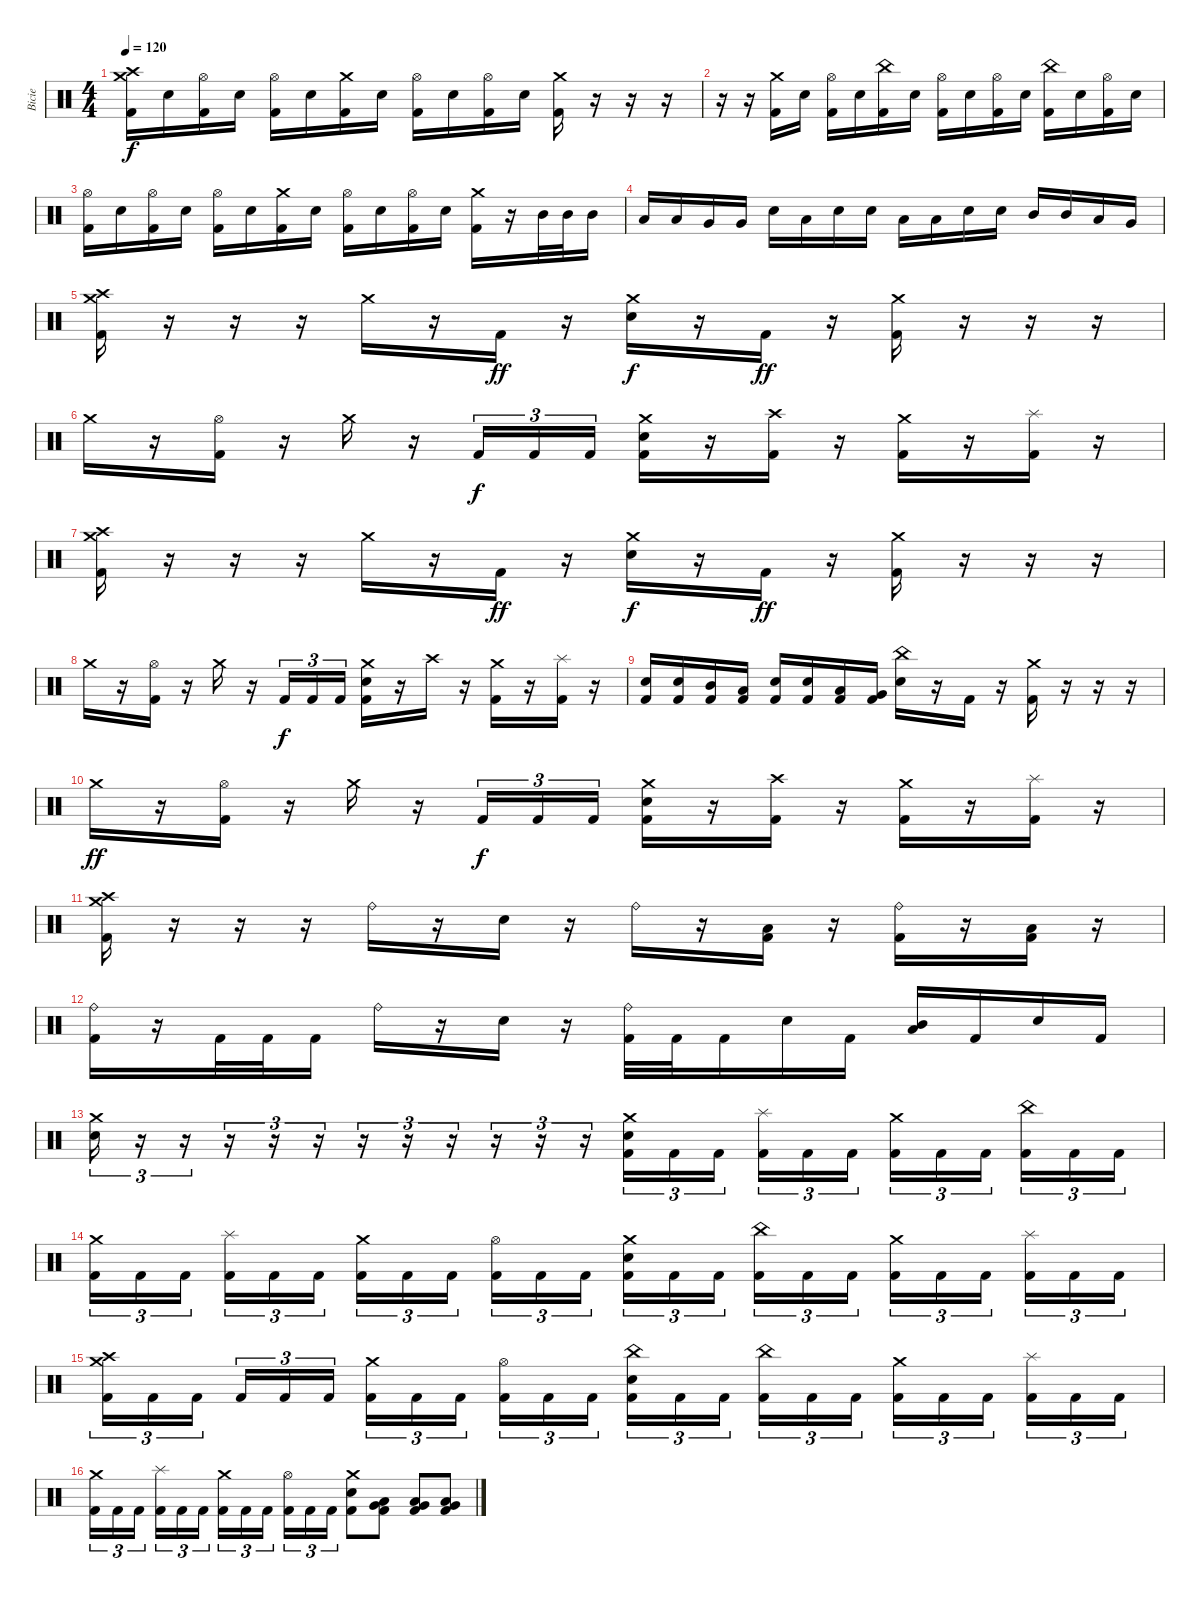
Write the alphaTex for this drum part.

\track ("Bicie" "Bicie") {instrument percussion}
\staff {score}
\articulation defaults
\ts (4 4)
\tempo 120
\clef neutral
\ks c
("Crash high (hit)" "Crash medium (hit)" "Kick (hit) 2").16{dy f} "Snare (hit) 2".16 ("Hi-Hat (open)" "Kick (hit) 2").16 "Snare (hit) 2".16 ("Hi-Hat (open)" "Kick (hit) 2").16 "Snare (hit) 2".16 ("Crash medium (hit)" "Kick (hit) 2").16 "Snare (hit) 2".16 ("Hi-Hat (open)" "Kick (hit) 2").16 "Snare (hit) 2".16 ("Hi-Hat (open)" "Kick (hit) 2").16 "Snare (hit) 2".16 ("Crash medium (hit)" "Kick (hit) 2").16 r.16 r.16 r.16 |
r.16 r.16 ("Crash medium (hit)" "Kick (hit) 2").16 "Snare (hit) 2".16 ("Hi-Hat (open)" "Kick (hit) 2").16 "Snare (hit) 2".16 ("China (hit)" "Kick (hit) 2").16 "Snare (hit) 2".16 ("Hi-Hat (open)" "Kick (hit) 2").16 "Snare (hit) 2".16 ("Hi-Hat (open)" "Kick (hit) 2").16 "Snare (hit) 2".16 ("China (hit)" "Kick (hit) 2").16 "Snare (hit) 2".16 ("Hi-Hat (open)" "Kick (hit) 2").16 "Snare (hit) 2".16 |
("Hi-Hat (open)" "Kick (hit) 2").16 "Snare (hit) 2".16 ("Hi-Hat (open)" "Kick (hit) 2").16 "Snare (hit) 2".16 ("Hi-Hat (open)" "Kick (hit) 2").16 "Snare (hit) 2".16 ("Crash medium (hit)" "Kick (hit) 2").16 "Snare (hit) 2".16 ("Hi-Hat (open)" "Kick (hit) 2").16 "Snare (hit) 2".16 ("Hi-Hat (open)" "Kick (hit) 2").16 "Snare (hit) 2".16 ("Crash medium (hit)" "Kick (hit) 2").16 r.16 "Mid Tom (hit)".32 "Mid Tom (hit)".32 "Mid Tom (hit)".16 |
"Low Tom (hit)".16 "Low Tom (hit)".16 "Very Low Tom (hit)".16 "Very Low Tom (hit)".16 "Snare (hit) 2".16 "Low Tom (hit)".16 "Snare (hit) 2".16 "Snare (hit) 2".16 "Low Tom (hit)".16 "Low Tom (hit)".16 "Snare (hit) 2".16 "Snare (hit) 2".16 "Mid Tom (hit)".16 "Mid Tom (hit)".16 "Low Tom (hit)".16 "Very Low Tom (hit)".16 |
("Crash medium (hit)" "Crash high (hit)" "Kick (hit) 2").16 r.16 r.16 r.16 "Crash medium (hit)".16 r.16 "Kick (hit) 2".16{dy ff} r.16 ("Crash medium (hit)" "Snare (hit) 2").16{dy f} r.16 "Kick (hit) 2".16{dy ff} r.16 ("Crash medium (hit)" "Kick (hit) 2").16 r.16 r.16 r.16 |
"Crash medium (hit)".16 r.16 ("Hi-Hat (open)" "Kick (hit) 2").16 r.16 "Crash medium (hit)".16 r.16 "Kick (hit) 2".16{tu (3 2) dy f} "Kick (hit) 2".16{tu (3 2)} "Kick (hit) 2".16{tu (3 2)} ("Crash medium (hit)" "Snare (hit) 2" "Kick (hit) 2").16 r.16 ("Crash high (hit)" "Kick (hit) 2").16 r.16 ("Crash medium (hit)" "Kick (hit) 2").16 r.16 ("Splash (hit)" "Kick (hit) 2").16 r.16 |
("Crash medium (hit)" "Crash high (hit)" "Kick (hit) 2").16 r.16 r.16 r.16 "Crash medium (hit)".16 r.16 "Kick (hit) 2".16{dy ff} r.16 ("Crash medium (hit)" "Snare (hit) 2").16{dy f} r.16 "Kick (hit) 2".16{dy ff} r.16 ("Crash medium (hit)" "Kick (hit) 2").16 r.16 r.16 r.16 |
"Crash medium (hit)".16 r.16 ("Hi-Hat (open)" "Kick (hit) 2").16 r.16 "Crash medium (hit)".16 r.16 "Kick (hit) 2".16{tu (3 2) dy f} "Kick (hit) 2".16{tu (3 2)} "Kick (hit) 2".16{tu (3 2)} ("Crash medium (hit)" "Snare (hit) 2" "Kick (hit) 2").16 r.16 "Crash high (hit)".16 r.16 ("Crash medium (hit)" "Kick (hit) 2").16 r.16 ("Splash (hit)" "Kick (hit) 2").16 r.16 |
("Snare (hit) 2" "Kick (hit) 2").16 ("Snare (hit) 2" "Kick (hit) 2").16 ("Mid Tom (hit)" "Kick (hit) 2").16 ("Low Tom (hit)" "Kick (hit) 2").16 ("Snare (hit) 2" "Kick (hit) 2").16 ("Snare (hit) 2" "Kick (hit) 2").16 ("Low Tom (hit)" "Kick (hit) 2").16 ("Very Low Tom (hit)" "Kick (hit) 2").16 ("China (hit)" "Snare (hit) 2").16 r.16 "Kick (hit) 2".16 r.16 ("Crash medium (hit)" "Kick (hit) 2").16 r.16 r.16 r.16 |
"Crash medium (hit)".16{dy ff} r.16 ("Hi-Hat (open)" "Kick (hit) 2").16 r.16 "Crash medium (hit)".16 r.16 "Kick (hit) 2".16{tu (3 2) dy f} "Kick (hit) 2".16{tu (3 2)} "Kick (hit) 2".16{tu (3 2)} ("Crash medium (hit)" "Snare (hit) 2" "Kick (hit) 2").16 r.16 ("Crash high (hit)" "Kick (hit) 2").16 r.16 ("Crash medium (hit)" "Kick (hit) 2").16 r.16 ("Splash (hit)" "Kick (hit) 2").16 r.16 |
("Crash medium (hit)" "Crash high (hit)" "Kick (hit) 2").16 r.16 r.16 r.16 "Ride (bell)".16 r.16 "Snare (hit) 2".16 r.16 "Ride (bell)".16 r.16 ("Low Tom (hit)" "Kick (hit) 2").16 r.16 ("Ride (bell)" "Kick (hit) 2").16 r.16 ("Low Tom (hit)" "Kick (hit) 2").16 r.16 |
("Ride (bell)" "Kick (hit) 2").16 r.16 "Kick (hit) 2".32 "Kick (hit) 2".32 "Kick (hit) 2".16 "Ride (bell)".16 r.16 "Snare (hit) 2".16 r.16 ("Ride (bell)" "Kick (hit) 2").32 "Kick (hit) 2".32 "Kick (hit) 2".16 "Snare (hit) 2".16 "Kick (hit) 2".16 ("Low Tom (hit)" "Mid Tom (hit)").16 "Kick (hit) 2".16 "Snare (hit) 2".16 "Kick (hit) 2".16 |
("Crash medium (hit)" "Snare (hit) 2").16{tu (3 2)} r.16{tu (3 2)} r.16{tu (3 2)} r.16{tu (3 2)} r.16{tu (3 2)} r.16{tu (3 2)} r.16{tu (3 2)} r.16{tu (3 2)} r.16{tu (3 2)} r.16{tu (3 2)} r.16{tu (3 2)} r.16{tu (3 2)} ("Crash medium (hit)" "Snare (hit) 2" "Kick (hit) 2").16{tu (3 2)} "Kick (hit) 2".16{tu (3 2)} "Kick (hit) 2".16{tu (3 2) beam splitsecondary} ("Splash (hit)" "Kick (hit) 2").16{tu (3 2)} "Kick (hit) 2".16{tu (3 2)} "Kick (hit) 2".16{tu (3 2)} ("Crash medium (hit)" "Kick (hit) 2").16{tu (3 2)} "Kick (hit) 2".16{tu (3 2)} "Kick (hit) 2".16{tu (3 2) beam splitsecondary} ("China (hit)" "Kick (hit) 2").16{tu (3 2)} "Kick (hit) 2".16{tu (3 2)} "Kick (hit) 2".16{tu (3 2)} |
("Crash medium (hit)" "Kick (hit) 2").16{tu (3 2)} "Kick (hit) 2".16{tu (3 2)} "Kick (hit) 2".16{tu (3 2) beam splitsecondary} ("Splash (hit)" "Kick (hit) 2").16{tu (3 2)} "Kick (hit) 2".16{tu (3 2)} "Kick (hit) 2".16{tu (3 2)} ("Crash medium (hit)" "Kick (hit) 2").16{tu (3 2)} "Kick (hit) 2".16{tu (3 2)} "Kick (hit) 2".16{tu (3 2) beam splitsecondary} ("Hi-Hat (open)" "Kick (hit) 2").16{tu (3 2)} "Kick (hit) 2".16{tu (3 2)} "Kick (hit) 2".16{tu (3 2)} ("Crash medium (hit)" "Snare (hit) 2" "Kick (hit) 2").16{tu (3 2)} "Kick (hit) 2".16{tu (3 2)} "Kick (hit) 2".16{tu (3 2) beam splitsecondary} ("China (hit)" "Kick (hit) 2").16{tu (3 2)} "Kick (hit) 2".16{tu (3 2)} "Kick (hit) 2".16{tu (3 2)} ("Crash medium (hit)" "Kick (hit) 2").16{tu (3 2)} "Kick (hit) 2".16{tu (3 2)} "Kick (hit) 2".16{tu (3 2) beam splitsecondary} ("Splash (hit)" "Kick (hit) 2").16{tu (3 2)} "Kick (hit) 2".16{tu (3 2)} "Kick (hit) 2".16{tu (3 2)} |
("Crash medium (hit)" "Crash high (hit)" "Kick (hit) 2").16{tu (3 2)} "Kick (hit) 2".16{tu (3 2)} "Kick (hit) 2".16{tu (3 2) beam splitsecondary} "Kick (hit) 2".16{tu (3 2)} "Kick (hit) 2".16{tu (3 2)} "Kick (hit) 2".16{tu (3 2)} ("Crash medium (hit)" "Kick (hit) 2").16{tu (3 2)} "Kick (hit) 2".16{tu (3 2)} "Kick (hit) 2".16{tu (3 2) beam splitsecondary} ("Hi-Hat (open)" "Kick (hit) 2").16{tu (3 2)} "Kick (hit) 2".16{tu (3 2)} "Kick (hit) 2".16{tu (3 2)} ("China (hit)" "Snare (hit) 2" "Kick (hit) 2").16{tu (3 2)} "Kick (hit) 2".16{tu (3 2)} "Kick (hit) 2".16{tu (3 2) beam splitsecondary} ("China (hit)" "Kick (hit) 2").16{tu (3 2)} "Kick (hit) 2".16{tu (3 2)} "Kick (hit) 2".16{tu (3 2)} ("Crash medium (hit)" "Kick (hit) 2").16{tu (3 2)} "Kick (hit) 2".16{tu (3 2)} "Kick (hit) 2".16{tu (3 2) beam splitsecondary} ("Splash (hit)" "Kick (hit) 2").16{tu (3 2)} "Kick (hit) 2".16{tu (3 2)} "Kick (hit) 2".16{tu (3 2)} |
("Crash medium (hit)" "Kick (hit) 2").16{tu (3 2)} "Kick (hit) 2".16{tu (3 2)} "Kick (hit) 2".16{tu (3 2) beam splitsecondary} ("Splash (hit)" "Kick (hit) 2").16{tu (3 2)} "Kick (hit) 2".16{tu (3 2)} "Kick (hit) 2".16{tu (3 2)} ("Crash medium (hit)" "Kick (hit) 2").16{tu (3 2)} "Kick (hit) 2".16{tu (3 2)} "Kick (hit) 2".16{tu (3 2) beam splitsecondary} ("Hi-Hat (open)" "Kick (hit) 2").16{tu (3 2)} "Kick (hit) 2".16{tu (3 2)} "Kick (hit) 2".16{tu (3 2)} ("Crash medium (hit)" "Snare (hit) 2" "Kick (hit) 2").8 ("Low Tom (hit)" "Very Low Tom (hit)" "Kick (hit) 2").8 ("Very Low Tom (hit)" "Low Floor Tom (hit)" "Kick (hit) 2").8 ("Very Low Tom (hit)" "Low Floor Tom (hit)" "Kick (hit) 2").8
